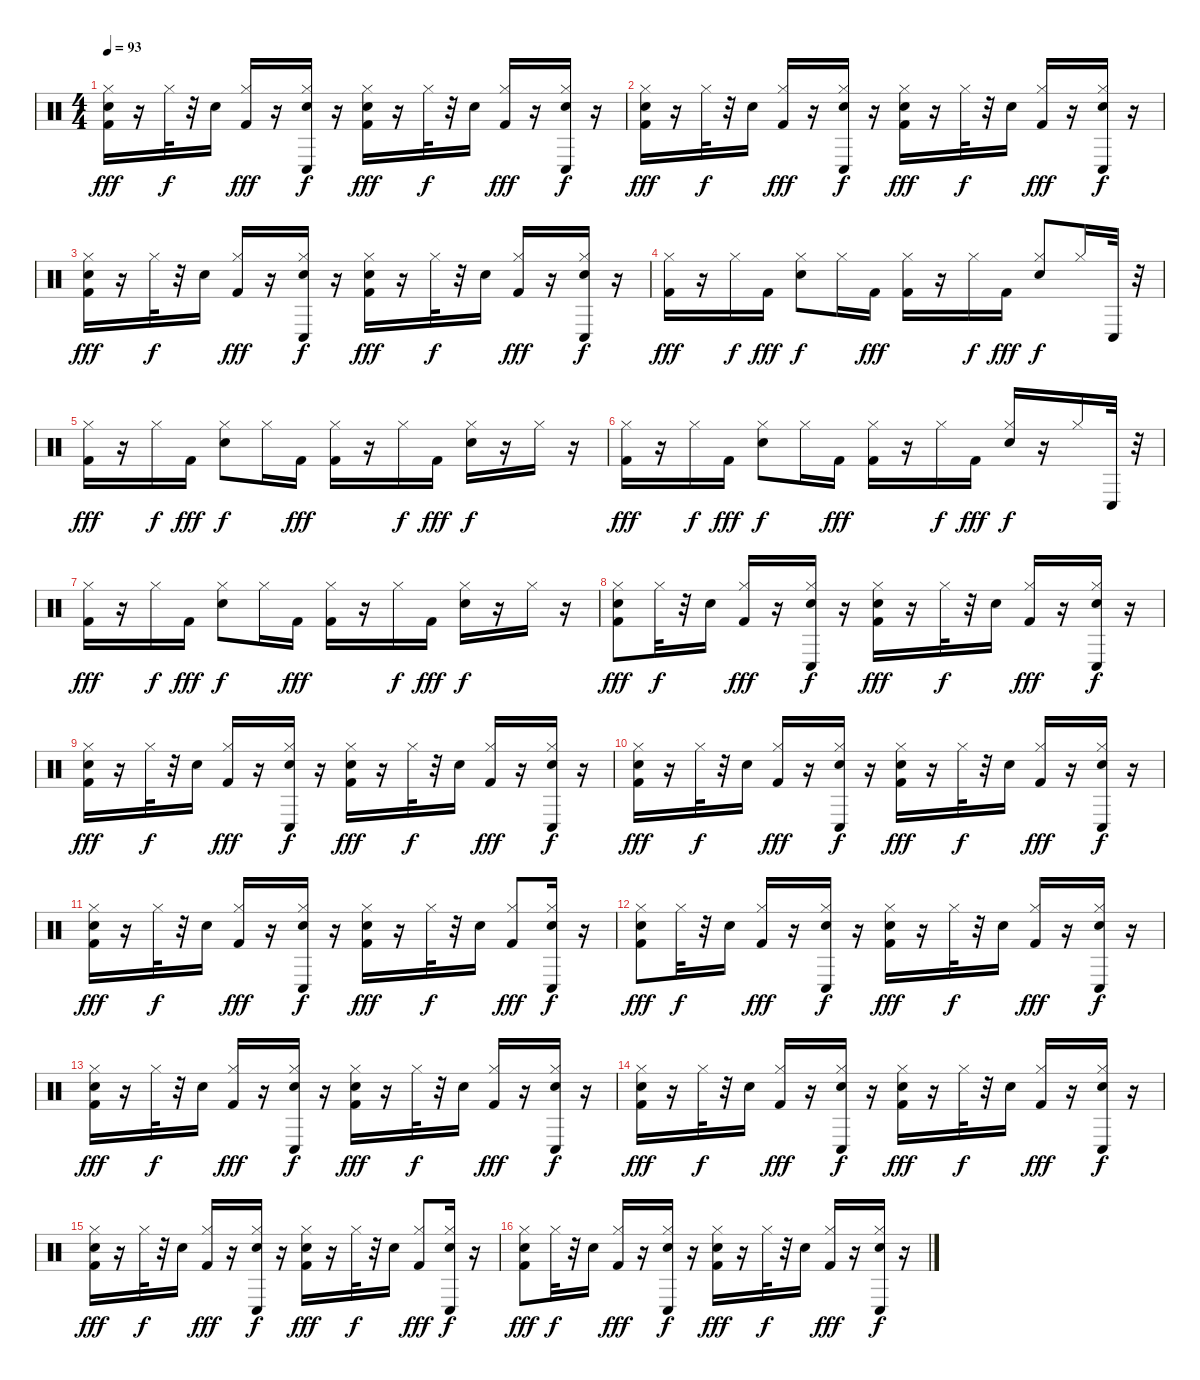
\track "" {instrument percussion}
\staff {score}
\articulation defaults
\ts (4 4)
\tempo 93
\clef neutral
\ks c
("Kick (hit) 2" "Snare (hit) 2" "Hi-Hat (closed)").16{dy fff} r.16 "Hi-Hat (closed)".32{dy f} r.32 "Snare (hit) 2".16 ("Kick (hit) 2" "Hi-Hat (closed)").16{dy fff} r.16 ("Snare (hit) 2" "Hi-Hat (closed)" "Conga low (hit)").16{dy f} r.16 ("Kick (hit) 2" "Snare (hit) 2" "Hi-Hat (closed)").16{dy fff} r.16 "Hi-Hat (closed)".32{dy f} r.32 "Snare (hit) 2".16 ("Kick (hit) 2" "Hi-Hat (closed)").16{dy fff} r.16 ("Conga low (hit)" "Snare (hit) 2" "Hi-Hat (closed)").16{dy f} r.16 |
("Kick (hit) 2" "Snare (hit) 2" "Hi-Hat (closed)").16{dy fff} r.16 "Hi-Hat (closed)".32{dy f} r.32 "Snare (hit) 2".16 ("Kick (hit) 2" "Hi-Hat (closed)").16{dy fff} r.16 ("Snare (hit) 2" "Hi-Hat (closed)" "Conga low (hit)").16{dy f} r.16 ("Hi-Hat (closed)" "Kick (hit) 2" "Snare (hit) 2").16{dy fff} r.16 "Hi-Hat (closed)".32{dy f} r.32 "Snare (hit) 2".16 ("Hi-Hat (closed)" "Kick (hit) 2").16{dy fff} r.16 ("Hi-Hat (closed)" "Snare (hit) 2" "Conga low (hit)").16{dy f} r.16 |
("Kick (hit) 2" "Snare (hit) 2" "Hi-Hat (closed)").16{dy fff} r.16 "Hi-Hat (closed)".32{dy f} r.32 "Snare (hit) 2".16 ("Hi-Hat (closed)" "Kick (hit) 2").16{dy fff} r.16 ("Hi-Hat (closed)" "Snare (hit) 2" "Conga low (hit)").16{dy f} r.16 ("Kick (hit) 2" "Snare (hit) 2" "Hi-Hat (closed)").16{dy fff} r.16 "Hi-Hat (closed)".32{dy f} r.32 "Snare (hit) 2".16 ("Hi-Hat (closed)" "Kick (hit) 2").16{dy fff} r.16 ("Hi-Hat (closed)" "Conga low (hit)" "Snare (hit) 2").16{dy f} r.16 |
("Kick (hit) 2" "Hi-Hat (closed)").16{dy fff} r.16 "Hi-Hat (closed)".16{dy f} "Kick (hit) 2".16{dy fff} ("Snare (hit) 2" "Hi-Hat (closed)").8{dy f} "Hi-Hat (closed)".16 "Kick (hit) 2".16{dy fff} ("Kick (hit) 2" "Hi-Hat (closed)").16 r.16 "Hi-Hat (closed)".16{dy f} "Kick (hit) 2".16{dy fff} ("Snare (hit) 2" "Hi-Hat (closed)").8{dy f} "Hi-Hat (closed)".16 "Conga low (hit)".32 r.32 |
("Kick (hit) 2" "Hi-Hat (closed)").16{dy fff} r.16 "Hi-Hat (closed)".16{dy f} "Kick (hit) 2".16{dy fff} ("Snare (hit) 2" "Hi-Hat (closed)").8{dy f} "Hi-Hat (closed)".16 "Kick (hit) 2".16{dy fff} ("Kick (hit) 2" "Hi-Hat (closed)").16 r.16 "Hi-Hat (closed)".16{dy f} "Kick (hit) 2".16{dy fff} ("Snare (hit) 2" "Hi-Hat (closed)").16{dy f} r.16 "Hi-Hat (closed)".16 r.16 |
("Kick (hit) 2" "Hi-Hat (closed)").16{dy fff} r.16 "Hi-Hat (closed)".16{dy f} "Kick (hit) 2".16{dy fff} ("Snare (hit) 2" "Hi-Hat (closed)").8{dy f} "Hi-Hat (closed)".16 "Kick (hit) 2".16{dy fff} ("Kick (hit) 2" "Hi-Hat (closed)").16 r.16 "Hi-Hat (closed)".16{dy f} "Kick (hit) 2".16{dy fff} ("Snare (hit) 2" "Hi-Hat (closed)").16{dy f} r.16 "Hi-Hat (closed)".16 "Conga low (hit)".32 r.32 |
("Kick (hit) 2" "Hi-Hat (closed)").16{dy fff} r.16 "Hi-Hat (closed)".16{dy f} "Kick (hit) 2".16{dy fff} ("Snare (hit) 2" "Hi-Hat (closed)").8{dy f} "Hi-Hat (closed)".16 "Kick (hit) 2".16{dy fff} ("Kick (hit) 2" "Hi-Hat (closed)").16 r.16 "Hi-Hat (closed)".16{dy f} "Kick (hit) 2".16{dy fff} ("Snare (hit) 2" "Hi-Hat (closed)").16{dy f} r.16 "Hi-Hat (closed)".16 r.16 |
("Kick (hit) 2" "Snare (hit) 2" "Hi-Hat (closed)").8{dy fff} "Hi-Hat (closed)".32{dy f} r.32 "Snare (hit) 2".16 ("Kick (hit) 2" "Hi-Hat (closed)").16{dy fff} r.16 ("Snare (hit) 2" "Hi-Hat (closed)" "Conga low (hit)").16{dy f} r.16 ("Kick (hit) 2" "Snare (hit) 2" "Hi-Hat (closed)").16{dy fff} r.16 "Hi-Hat (closed)".32{dy f} r.32 "Snare (hit) 2".16 ("Kick (hit) 2" "Hi-Hat (closed)").16{dy fff} r.16 ("Hi-Hat (closed)" "Snare (hit) 2" "Conga low (hit)").16{dy f} r.16 |
("Kick (hit) 2" "Snare (hit) 2" "Hi-Hat (closed)").16{dy fff} r.16 "Hi-Hat (closed)".32{dy f} r.32 "Snare (hit) 2".16 ("Kick (hit) 2" "Hi-Hat (closed)").16{dy fff} r.16 ("Snare (hit) 2" "Hi-Hat (closed)" "Conga low (hit)").16{dy f} r.16 ("Kick (hit) 2" "Snare (hit) 2" "Hi-Hat (closed)").16{dy fff} r.16 "Hi-Hat (closed)".32{dy f} r.32 "Snare (hit) 2".16 ("Kick (hit) 2" "Hi-Hat (closed)").16{dy fff} r.16 ("Conga low (hit)" "Snare (hit) 2" "Hi-Hat (closed)").16{dy f} r.16 |
("Kick (hit) 2" "Snare (hit) 2" "Hi-Hat (closed)").16{dy fff} r.16 "Hi-Hat (closed)".32{dy f} r.32 "Snare (hit) 2".16 ("Kick (hit) 2" "Hi-Hat (closed)").16{dy fff} r.16 ("Snare (hit) 2" "Hi-Hat (closed)" "Conga low (hit)").16{dy f} r.16 ("Hi-Hat (closed)" "Kick (hit) 2" "Snare (hit) 2").16{dy fff} r.16 "Hi-Hat (closed)".32{dy f} r.32 "Snare (hit) 2".16 ("Hi-Hat (closed)" "Kick (hit) 2").16{dy fff} r.16 ("Hi-Hat (closed)" "Snare (hit) 2" "Conga low (hit)").16{dy f} r.16 |
("Kick (hit) 2" "Snare (hit) 2" "Hi-Hat (closed)").16{dy fff} r.16 "Hi-Hat (closed)".32{dy f} r.32 "Snare (hit) 2".16 ("Hi-Hat (closed)" "Kick (hit) 2").16{dy fff} r.16 ("Hi-Hat (closed)" "Snare (hit) 2" "Conga low (hit)").16{dy f} r.16 ("Kick (hit) 2" "Snare (hit) 2" "Hi-Hat (closed)").16{dy fff} r.16 "Hi-Hat (closed)".32{dy f} r.32 "Snare (hit) 2".16 ("Hi-Hat (closed)" "Kick (hit) 2").8{dy fff} ("Hi-Hat (closed)" "Conga low (hit)" "Snare (hit) 2").16{dy f} r.16 |
("Kick (hit) 2" "Snare (hit) 2" "Hi-Hat (closed)").8{dy fff} "Hi-Hat (closed)".32{dy f} r.32 "Snare (hit) 2".16 ("Kick (hit) 2" "Hi-Hat (closed)").16{dy fff} r.16 ("Snare (hit) 2" "Hi-Hat (closed)" "Conga low (hit)").16{dy f} r.16 ("Kick (hit) 2" "Snare (hit) 2" "Hi-Hat (closed)").16{dy fff} r.16 "Hi-Hat (closed)".32{dy f} r.32 "Snare (hit) 2".16 ("Kick (hit) 2" "Hi-Hat (closed)").16{dy fff} r.16 ("Hi-Hat (closed)" "Snare (hit) 2" "Conga low (hit)").16{dy f} r.16 |
("Kick (hit) 2" "Snare (hit) 2" "Hi-Hat (closed)").16{dy fff} r.16 "Hi-Hat (closed)".32{dy f} r.32 "Snare (hit) 2".16 ("Kick (hit) 2" "Hi-Hat (closed)").16{dy fff} r.16 ("Snare (hit) 2" "Hi-Hat (closed)" "Conga low (hit)").16{dy f} r.16 ("Kick (hit) 2" "Snare (hit) 2" "Hi-Hat (closed)").16{dy fff} r.16 "Hi-Hat (closed)".32{dy f} r.32 "Snare (hit) 2".16 ("Kick (hit) 2" "Hi-Hat (closed)").16{dy fff} r.16 ("Conga low (hit)" "Snare (hit) 2" "Hi-Hat (closed)").16{dy f} r.16 |
("Kick (hit) 2" "Snare (hit) 2" "Hi-Hat (closed)").16{dy fff} r.16 "Hi-Hat (closed)".32{dy f} r.32 "Snare (hit) 2".16 ("Kick (hit) 2" "Hi-Hat (closed)").16{dy fff} r.16 ("Snare (hit) 2" "Hi-Hat (closed)" "Conga low (hit)").16{dy f} r.16 ("Hi-Hat (closed)" "Kick (hit) 2" "Snare (hit) 2").16{dy fff} r.16 "Hi-Hat (closed)".32{dy f} r.32 "Snare (hit) 2".16 ("Hi-Hat (closed)" "Kick (hit) 2").16{dy fff} r.16 ("Hi-Hat (closed)" "Snare (hit) 2" "Conga low (hit)").16{dy f} r.16 |
("Kick (hit) 2" "Snare (hit) 2" "Hi-Hat (closed)").16{dy fff} r.16 "Hi-Hat (closed)".32{dy f} r.32 "Snare (hit) 2".16 ("Hi-Hat (closed)" "Kick (hit) 2").16{dy fff} r.16 ("Hi-Hat (closed)" "Snare (hit) 2" "Conga low (hit)").16{dy f} r.16 ("Kick (hit) 2" "Snare (hit) 2" "Hi-Hat (closed)").16{dy fff} r.16 "Hi-Hat (closed)".32{dy f} r.32 "Snare (hit) 2".16 ("Hi-Hat (closed)" "Kick (hit) 2").8{dy fff} ("Hi-Hat (closed)" "Conga low (hit)" "Snare (hit) 2").16{dy f} r.16 |
("Kick (hit) 2" "Snare (hit) 2" "Hi-Hat (closed)").8{dy fff} "Hi-Hat (closed)".32{dy f} r.32 "Snare (hit) 2".16 ("Kick (hit) 2" "Hi-Hat (closed)").16{dy fff} r.16 ("Snare (hit) 2" "Hi-Hat (closed)" "Conga low (hit)").16{dy f} r.16 ("Kick (hit) 2" "Snare (hit) 2" "Hi-Hat (closed)").16{dy fff} r.16 "Hi-Hat (closed)".32{dy f} r.32 "Snare (hit) 2".16 ("Kick (hit) 2" "Hi-Hat (closed)").16{dy fff} r.16 ("Hi-Hat (closed)" "Snare (hit) 2" "Conga low (hit)").16{dy f} r.16
